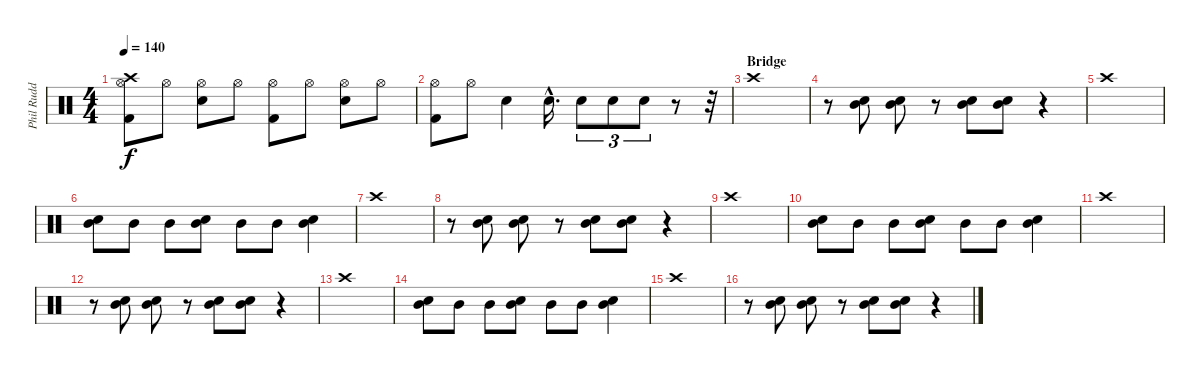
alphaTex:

\track ("Phil Rudd" "Phil Rudd") {instrument percussion}
\staff {score}
\articulation defaults
\ts (4 4)
\tempo 140
\clef neutral
\ks c
("Crash high (hit)" "Hi-Hat (open)" "Kick (hit) 2").8{dy f} "Hi-Hat (open)".8 ("Hi-Hat (open)" "Snare (hit) 2").8 "Hi-Hat (open)".8 ("Hi-Hat (open)" "Kick (hit) 2").8 "Hi-Hat (open)".8 ("Hi-Hat (open)" "Snare (hit) 2").8 "Hi-Hat (open)".8 |
("Hi-Hat (open)" "Kick (hit) 2").8 "Hi-Hat (open)".8 "Snare (hit) 2".4 "Snare (hit) 2"{hac}.16{d} "Snare (hit) 2".8{tu (3 2)} "Snare (hit) 2".8{tu (3 2)} "Snare (hit) 2".8{tu (3 2)} r.8 r.32 |
\section ("" "Bridge")
"Crash high (hit)".1 |
r.8 ("Mid Tom (hit)" "Snare (hit) 2").8 ("Mid Tom (hit)" "Snare (hit) 2").8 r.8 ("Mid Tom (hit)" "Snare (hit) 2").8 ("Mid Tom (hit)" "Snare (hit) 2").8 r.4 |
"Crash high (hit)".1 |
("Mid Tom (hit)" "Snare (hit) 2").8 "Mid Tom (hit)".8 "Mid Tom (hit)".8 ("Mid Tom (hit)" "Snare (hit) 2").8 "Mid Tom (hit)".8 "Mid Tom (hit)".8 ("Mid Tom (hit)" "Snare (hit) 2").4 |
"Crash high (hit)".1 |
r.8 ("Mid Tom (hit)" "Snare (hit) 2").8 ("Mid Tom (hit)" "Snare (hit) 2").8 r.8 ("Mid Tom (hit)" "Snare (hit) 2").8 ("Mid Tom (hit)" "Snare (hit) 2").8 r.4 |
"Crash high (hit)".1 |
("Mid Tom (hit)" "Snare (hit) 2").8 "Mid Tom (hit)".8 "Mid Tom (hit)".8 ("Mid Tom (hit)" "Snare (hit) 2").8 "Mid Tom (hit)".8 "Mid Tom (hit)".8 ("Mid Tom (hit)" "Snare (hit) 2").4 |
"Crash high (hit)".1 |
r.8 ("Mid Tom (hit)" "Snare (hit) 2").8 ("Mid Tom (hit)" "Snare (hit) 2").8 r.8 ("Mid Tom (hit)" "Snare (hit) 2").8 ("Mid Tom (hit)" "Snare (hit) 2").8 r.4 |
"Crash high (hit)".1 |
("Mid Tom (hit)" "Snare (hit) 2").8 "Mid Tom (hit)".8 "Mid Tom (hit)".8 ("Mid Tom (hit)" "Snare (hit) 2").8 "Mid Tom (hit)".8 "Mid Tom (hit)".8 ("Mid Tom (hit)" "Snare (hit) 2").4 |
"Crash high (hit)".1 |
r.8 ("Mid Tom (hit)" "Snare (hit) 2").8 ("Mid Tom (hit)" "Snare (hit) 2").8 r.8 ("Mid Tom (hit)" "Snare (hit) 2").8 ("Mid Tom (hit)" "Snare (hit) 2").8 r.4
